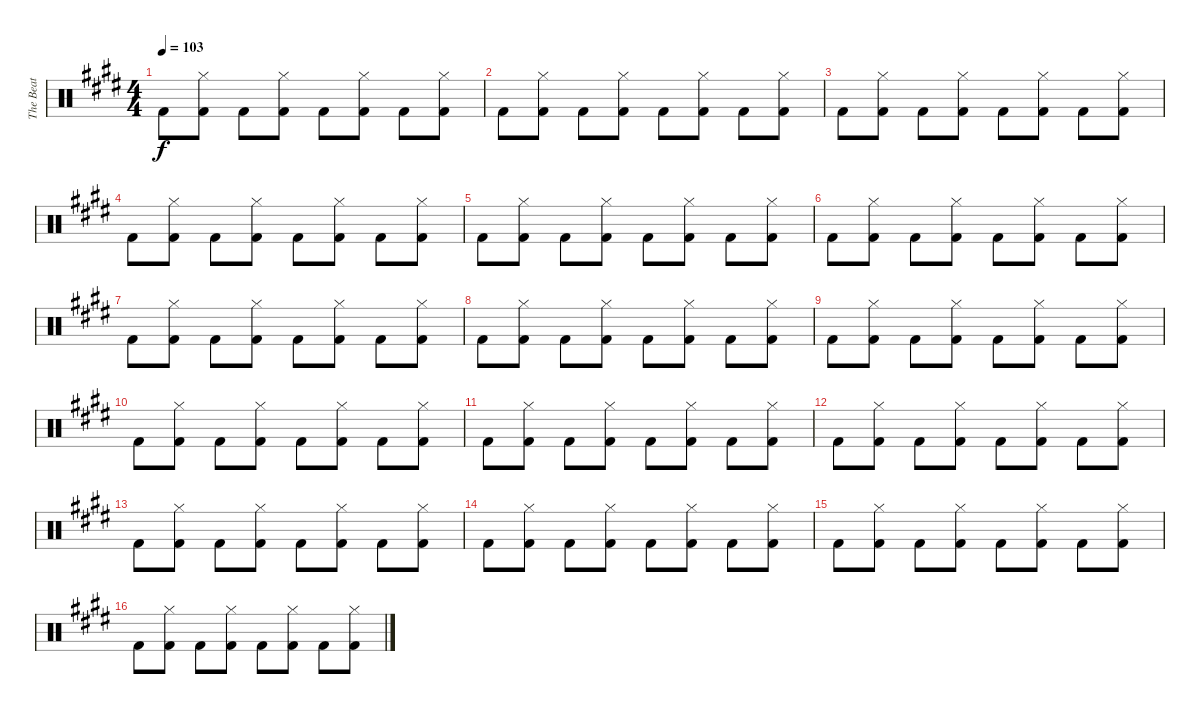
\track ("The Beat" "The Beat") {instrument percussion}
\staff {score}
\articulation defaults
\ts (4 4)
\tempo 103
\clef neutral
\ks e "Kick (hit) 2".8{dy f}
("Hi-Hat (closed)" "Kick (hit) 2").8 "Kick (hit) 2".8 ("Hi-Hat (closed)" "Kick (hit) 2").8 "Kick (hit) 2".8 ("Hi-Hat (closed)" "Kick (hit) 2").8 "Kick (hit) 2".8 ("Hi-Hat (closed)" "Kick (hit) 2").8 |
"Kick (hit) 2".8 ("Hi-Hat (closed)" "Kick (hit) 2").8 "Kick (hit) 2".8 ("Hi-Hat (closed)" "Kick (hit) 2").8 "Kick (hit) 2".8 ("Hi-Hat (closed)" "Kick (hit) 2").8 "Kick (hit) 2".8 ("Hi-Hat (closed)" "Kick (hit) 2").8 |
"Kick (hit) 2".8 ("Hi-Hat (closed)" "Kick (hit) 2").8 "Kick (hit) 2".8 ("Hi-Hat (closed)" "Kick (hit) 2").8 "Kick (hit) 2".8 ("Hi-Hat (closed)" "Kick (hit) 2").8 "Kick (hit) 2".8 ("Hi-Hat (closed)" "Kick (hit) 2").8 |
"Kick (hit) 2".8 ("Hi-Hat (closed)" "Kick (hit) 2").8 "Kick (hit) 2".8 ("Hi-Hat (closed)" "Kick (hit) 2").8 "Kick (hit) 2".8 ("Hi-Hat (closed)" "Kick (hit) 2").8 "Kick (hit) 2".8 ("Hi-Hat (closed)" "Kick (hit) 2").8 |
"Kick (hit) 2".8 ("Hi-Hat (closed)" "Kick (hit) 2").8 "Kick (hit) 2".8 ("Hi-Hat (closed)" "Kick (hit) 2").8 "Kick (hit) 2".8 ("Hi-Hat (closed)" "Kick (hit) 2").8 "Kick (hit) 2".8 ("Hi-Hat (closed)" "Kick (hit) 2").8 |
"Kick (hit) 2".8 ("Hi-Hat (closed)" "Kick (hit) 2").8 "Kick (hit) 2".8 ("Hi-Hat (closed)" "Kick (hit) 2").8 "Kick (hit) 2".8 ("Hi-Hat (closed)" "Kick (hit) 2").8 "Kick (hit) 2".8 ("Hi-Hat (closed)" "Kick (hit) 2").8 |
"Kick (hit) 2".8 ("Hi-Hat (closed)" "Kick (hit) 2").8 "Kick (hit) 2".8 ("Hi-Hat (closed)" "Kick (hit) 2").8 "Kick (hit) 2".8 ("Hi-Hat (closed)" "Kick (hit) 2").8 "Kick (hit) 2".8 ("Hi-Hat (closed)" "Kick (hit) 2").8 |
"Kick (hit) 2".8 ("Hi-Hat (closed)" "Kick (hit) 2").8 "Kick (hit) 2".8 ("Hi-Hat (closed)" "Kick (hit) 2").8 "Kick (hit) 2".8 ("Hi-Hat (closed)" "Kick (hit) 2").8 "Kick (hit) 2".8 ("Hi-Hat (closed)" "Kick (hit) 2").8 |
"Kick (hit) 2".8 ("Hi-Hat (closed)" "Kick (hit) 2").8 "Kick (hit) 2".8 ("Hi-Hat (closed)" "Kick (hit) 2").8 "Kick (hit) 2".8 ("Hi-Hat (closed)" "Kick (hit) 2").8 "Kick (hit) 2".8 ("Hi-Hat (closed)" "Kick (hit) 2").8 |
"Kick (hit) 2".8 ("Hi-Hat (closed)" "Kick (hit) 2").8 "Kick (hit) 2".8 ("Hi-Hat (closed)" "Kick (hit) 2").8 "Kick (hit) 2".8 ("Hi-Hat (closed)" "Kick (hit) 2").8 "Kick (hit) 2".8 ("Hi-Hat (closed)" "Kick (hit) 2").8 |
"Kick (hit) 2".8 ("Hi-Hat (closed)" "Kick (hit) 2").8 "Kick (hit) 2".8 ("Hi-Hat (closed)" "Kick (hit) 2").8 "Kick (hit) 2".8 ("Hi-Hat (closed)" "Kick (hit) 2").8 "Kick (hit) 2".8 ("Hi-Hat (closed)" "Kick (hit) 2").8 |
"Kick (hit) 2".8 ("Hi-Hat (closed)" "Kick (hit) 2").8 "Kick (hit) 2".8 ("Hi-Hat (closed)" "Kick (hit) 2").8 "Kick (hit) 2".8 ("Hi-Hat (closed)" "Kick (hit) 2").8 "Kick (hit) 2".8 ("Hi-Hat (closed)" "Kick (hit) 2").8 |
"Kick (hit) 2".8 ("Hi-Hat (closed)" "Kick (hit) 2").8 "Kick (hit) 2".8 ("Hi-Hat (closed)" "Kick (hit) 2").8 "Kick (hit) 2".8 ("Hi-Hat (closed)" "Kick (hit) 2").8 "Kick (hit) 2".8 ("Hi-Hat (closed)" "Kick (hit) 2").8 |
"Kick (hit) 2".8 ("Hi-Hat (closed)" "Kick (hit) 2").8 "Kick (hit) 2".8 ("Hi-Hat (closed)" "Kick (hit) 2").8 "Kick (hit) 2".8 ("Hi-Hat (closed)" "Kick (hit) 2").8 "Kick (hit) 2".8 ("Hi-Hat (closed)" "Kick (hit) 2").8 |
"Kick (hit) 2".8 ("Hi-Hat (closed)" "Kick (hit) 2").8 "Kick (hit) 2".8 ("Hi-Hat (closed)" "Kick (hit) 2").8 "Kick (hit) 2".8 ("Hi-Hat (closed)" "Kick (hit) 2").8 "Kick (hit) 2".8 ("Hi-Hat (closed)" "Kick (hit) 2").8 |
"Kick (hit) 2".8 ("Hi-Hat (closed)" "Kick (hit) 2").8 "Kick (hit) 2".8 ("Hi-Hat (closed)" "Kick (hit) 2").8 "Kick (hit) 2".8 ("Hi-Hat (closed)" "Kick (hit) 2").8 "Kick (hit) 2".8 ("Hi-Hat (closed)" "Kick (hit) 2").8
